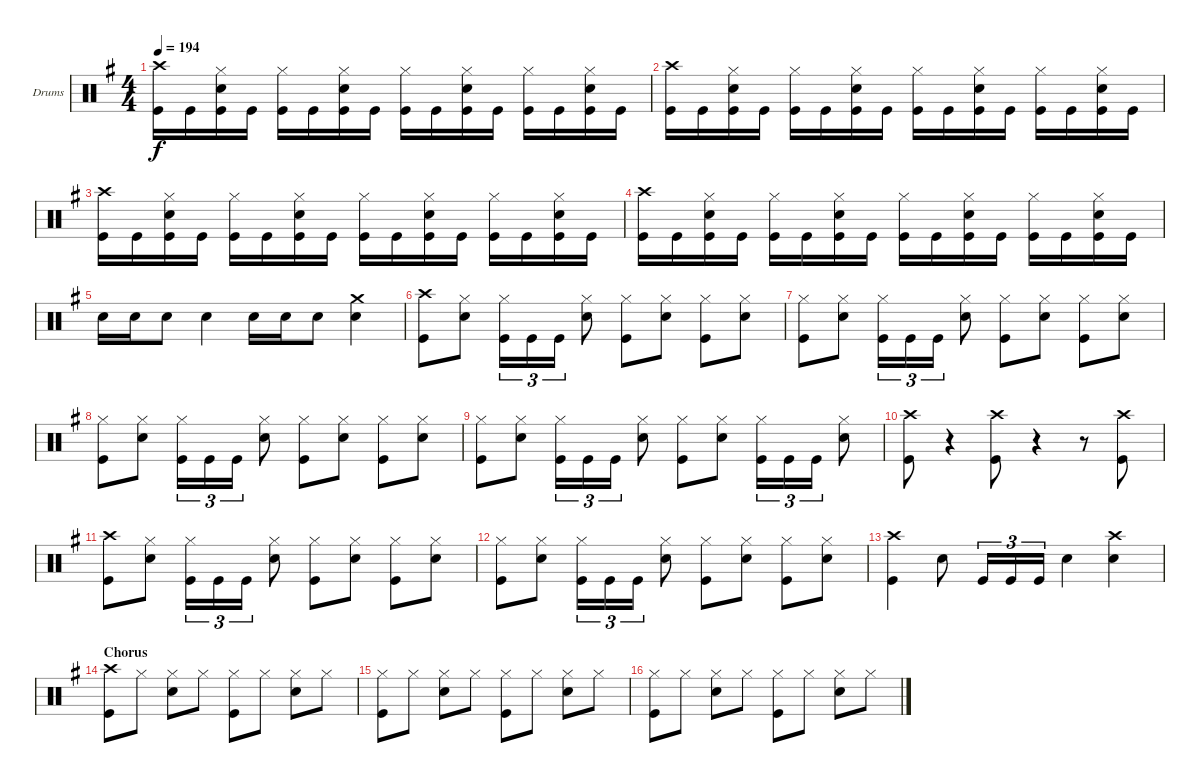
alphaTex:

\bracketExtendMode groupsimilarinstruments
\firstSystemTrackNameOrientation horizontal
\otherSystemsTrackNameOrientation horizontal
\track ("Drumkit" "Drums") {instrument percussion}
\staff {score}
\articulation defaults
\ts (4 4)
\tempo 194
\clef neutral
\scale
1.04288
\ks g
("Crash high (hit)" "Kick (hit)").16{dy f} "Kick (hit)".16 ("Hi-Hat (closed)" "Snare (hit) 2" "Kick (hit)").16 "Kick (hit)".16 ("Hi-Hat (closed)" "Kick (hit)").16 "Kick (hit)".16 ("Hi-Hat (closed)" "Snare (hit) 2" "Kick (hit)").16 "Kick (hit)".16 ("Hi-Hat (closed)" "Kick (hit)").16 "Kick (hit)".16 ("Hi-Hat (closed)" "Snare (hit) 2" "Kick (hit)").16 "Kick (hit)".16 ("Hi-Hat (closed)" "Kick (hit)").16 "Kick (hit)".16 ("Hi-Hat (closed)" "Snare (hit) 2" "Kick (hit)").16 "Kick (hit)".16 |
\scale
0.957125 ("Crash high (hit)" "Kick (hit)").16 "Kick (hit)".16 ("Hi-Hat (closed)" "Snare (hit) 2" "Kick (hit)").16 "Kick (hit)".16 ("Hi-Hat (closed)" "Kick (hit)").16 "Kick (hit)".16 ("Hi-Hat (closed)" "Snare (hit) 2" "Kick (hit)").16 "Kick (hit)".16 ("Hi-Hat (closed)" "Kick (hit)").16 "Kick (hit)".16 ("Hi-Hat (closed)" "Snare (hit) 2" "Kick (hit)").16 "Kick (hit)".16 ("Hi-Hat (closed)" "Kick (hit)").16 "Kick (hit)".16 ("Hi-Hat (closed)" "Snare (hit) 2" "Kick (hit)").16 "Kick (hit)".16 |
\scale
1.04288 ("Crash high (hit)" "Kick (hit)").16 "Kick (hit)".16 ("Hi-Hat (closed)" "Snare (hit) 2" "Kick (hit)").16 "Kick (hit)".16 ("Hi-Hat (closed)" "Kick (hit)").16 "Kick (hit)".16 ("Hi-Hat (closed)" "Snare (hit) 2" "Kick (hit)").16 "Kick (hit)".16 ("Hi-Hat (closed)" "Kick (hit)").16 "Kick (hit)".16 ("Hi-Hat (closed)" "Snare (hit) 2" "Kick (hit)").16 "Kick (hit)".16 ("Hi-Hat (closed)" "Kick (hit)").16 "Kick (hit)".16 ("Hi-Hat (closed)" "Snare (hit) 2" "Kick (hit)").16 "Kick (hit)".16 |
\scale
0.957125 ("Crash high (hit)" "Kick (hit)").16 "Kick (hit)".16 ("Hi-Hat (closed)" "Snare (hit) 2" "Kick (hit)").16 "Kick (hit)".16 ("Hi-Hat (closed)" "Kick (hit)").16 "Kick (hit)".16 ("Hi-Hat (closed)" "Snare (hit) 2" "Kick (hit)").16 "Kick (hit)".16 ("Hi-Hat (closed)" "Kick (hit)").16 "Kick (hit)".16 ("Hi-Hat (closed)" "Snare (hit) 2" "Kick (hit)").16 "Kick (hit)".16 ("Hi-Hat (closed)" "Kick (hit)").16 "Kick (hit)".16 ("Hi-Hat (closed)" "Snare (hit) 2" "Kick (hit)").16 "Kick (hit)".16 |
\scale
1.04288 "Snare (hit) 2".16 "Snare (hit) 2".16 "Snare (hit) 2".8 "Snare (hit) 2".4 "Snare (hit) 2".16 "Snare (hit) 2".16 "Snare (hit) 2".8 ("Crash medium (hit)" "Snare (hit) 2").4 |
\scale
0.957125 ("Crash high (hit)" "Kick (hit)").8 ("Hi-Hat (closed)" "Snare (hit) 2").8 ("Hi-Hat (closed)" "Kick (hit)").16{tu (3 2)} "Kick (hit)".16{tu (3 2)} "Kick (hit)".16{tu (3 2)} ("Hi-Hat (closed)" "Snare (hit) 2").8 ("Hi-Hat (closed)" "Kick (hit)").8 ("Hi-Hat (closed)" "Snare (hit) 2").8 ("Hi-Hat (closed)" "Kick (hit)").8 ("Hi-Hat (closed)" "Snare (hit) 2").8 |
\scale
1.04288 ("Hi-Hat (closed)" "Kick (hit)").8 ("Hi-Hat (closed)" "Snare (hit) 2").8 ("Hi-Hat (closed)" "Kick (hit)").16{tu (3 2)} "Kick (hit)".16{tu (3 2)} "Kick (hit)".16{tu (3 2)} ("Hi-Hat (closed)" "Snare (hit) 2").8 ("Hi-Hat (closed)" "Kick (hit)").8 ("Hi-Hat (closed)" "Snare (hit) 2").8 ("Hi-Hat (closed)" "Kick (hit)").8 ("Hi-Hat (closed)" "Snare (hit) 2").8 |
\scale
0.957125 ("Hi-Hat (closed)" "Kick (hit)").8 ("Hi-Hat (closed)" "Snare (hit) 2").8 ("Hi-Hat (closed)" "Kick (hit)").16{tu (3 2)} "Kick (hit)".16{tu (3 2)} "Kick (hit)".16{tu (3 2)} ("Hi-Hat (closed)" "Snare (hit) 2").8 ("Hi-Hat (closed)" "Kick (hit)").8 ("Hi-Hat (closed)" "Snare (hit) 2").8 ("Hi-Hat (closed)" "Kick (hit)").8 ("Hi-Hat (closed)" "Snare (hit) 2").8 |
\scale
1.04288 ("Hi-Hat (closed)" "Kick (hit)").8 ("Hi-Hat (closed)" "Snare (hit) 2").8 ("Hi-Hat (closed)" "Kick (hit)").16{tu (3 2)} "Kick (hit)".16{tu (3 2)} "Kick (hit)".16{tu (3 2)} ("Hi-Hat (closed)" "Snare (hit) 2").8 ("Hi-Hat (closed)" "Kick (hit)").8 ("Hi-Hat (closed)" "Snare (hit) 2").8 ("Hi-Hat (closed)" "Kick (hit)").16{tu (3 2)} "Kick (hit)".16{tu (3 2)} "Kick (hit)".16{tu (3 2)} ("Hi-Hat (closed)" "Snare (hit) 2").8 |
\scale
0.957125 ("Crash high (hit)" "Kick (hit)").8 r.4 ("Crash high (hit)" "Kick (hit)").8 r.4 r.8 ("Crash high (hit)" "Kick (hit)").8 |
\scale
1.04288 ("Crash high (hit)" "Kick (hit)").8 ("Hi-Hat (closed)" "Snare (hit) 2").8 ("Hi-Hat (closed)" "Kick (hit)").16{tu (3 2)} "Kick (hit)".16{tu (3 2)} "Kick (hit)".16{tu (3 2)} ("Hi-Hat (closed)" "Snare (hit) 2").8 ("Hi-Hat (closed)" "Kick (hit)").8 ("Hi-Hat (closed)" "Snare (hit) 2").8 ("Hi-Hat (closed)" "Kick (hit)").8 ("Hi-Hat (closed)" "Snare (hit) 2").8 |
\scale
0.957125 ("Hi-Hat (closed)" "Kick (hit)").8 ("Hi-Hat (closed)" "Snare (hit) 2").8 ("Hi-Hat (closed)" "Kick (hit)").16{tu (3 2)} "Kick (hit)".16{tu (3 2)} "Kick (hit)".16{tu (3 2)} ("Hi-Hat (closed)" "Snare (hit) 2").8 ("Hi-Hat (closed)" "Kick (hit)").8 ("Hi-Hat (closed)" "Snare (hit) 2").8 ("Hi-Hat (closed)" "Kick (hit)").8 ("Hi-Hat (closed)" "Snare (hit) 2").8 |
\scale
1.04288 ("Crash high (hit)" "Kick (hit)").4 "Snare (hit) 2".8 "Kick (hit)".16{tu (3 2)} "Kick (hit)".16{tu (3 2)} "Kick (hit)".16{tu (3 2)} "Snare (hit) 2".4 ("Crash high (hit)" "Snare (hit) 2").4 |
\section ("" "Chorus")
\scale
0.957125 ("Crash high (hit)" "Kick (hit)").8 "Hi-Hat (closed)".8 ("Hi-Hat (closed)" "Snare (hit) 2").8 "Hi-Hat (closed)".8 ("Hi-Hat (closed)" "Kick (hit)").8 "Hi-Hat (closed)".8 ("Hi-Hat (closed)" "Snare (hit) 2").8 "Hi-Hat (closed)".8 |
\scale
1.04288 ("Hi-Hat (closed)" "Kick (hit)").8 "Hi-Hat (closed)".8 ("Hi-Hat (closed)" "Snare (hit) 2").8 "Hi-Hat (closed)".8 ("Hi-Hat (closed)" "Kick (hit)").8 "Hi-Hat (closed)".8 ("Hi-Hat (closed)" "Snare (hit) 2").8 "Hi-Hat (closed)".8 |
\scale
0.957125 ("Hi-Hat (closed)" "Kick (hit)").8 "Hi-Hat (closed)".8 ("Hi-Hat (closed)" "Snare (hit) 2").8 "Hi-Hat (closed)".8 ("Hi-Hat (closed)" "Kick (hit)").8 "Hi-Hat (closed)".8 ("Hi-Hat (closed)" "Snare (hit) 2").8 "Hi-Hat (closed)".8
